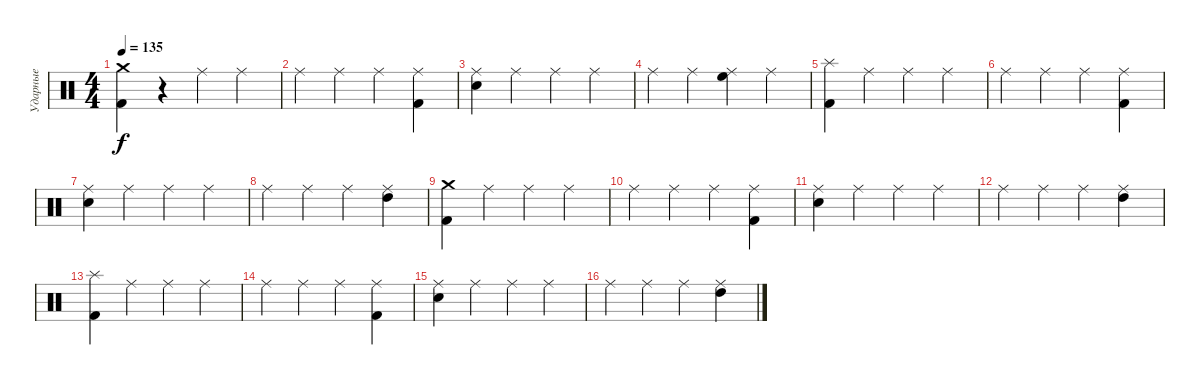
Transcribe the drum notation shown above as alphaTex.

\track ("Ударные" "Ударные") {instrument percussion}
\staff {score}
\articulation defaults
\ts (4 4)
\tempo 135
\clef neutral
\ks c
("Crash medium (hit)" "Kick (hit) 2").4{dy f} r.4 "Ride (middle)".4 "Ride (middle)".4 |
"Ride (middle)".4 "Ride (middle)".4 "Ride (middle)".4 ("Ride (middle)" "Kick (hit) 2").4 |
("Ride (middle)" "Electric Snare (hit)").4 "Ride (middle)".4 "Ride (middle)".4 "Ride (middle)".4 |
"Ride (middle)".4 "Ride (middle)".4 ("Ride (middle)" "High Floor Tom (hit)").4 "Ride (middle)".4 |
("Splash (hit)" "Kick (hit) 2").4 "Ride (middle)".4 "Ride (middle)".4 "Ride (middle)".4 |
"Ride (middle)".4 "Ride (middle)".4 "Ride (middle)".4 ("Ride (middle)" "Kick (hit) 2").4 |
("Ride (middle)" "Electric Snare (hit)").4 "Ride (middle)".4 "Ride (middle)".4 "Ride (middle)".4 |
"Ride (middle)".4 "Ride (middle)".4 "Ride (middle)".4 ("Ride (middle)" "High Tom (hit)").4 |
("Crash medium (hit)" "Kick (hit) 2").4 "Ride (middle)".4 "Ride (middle)".4 "Ride (middle)".4 |
"Ride (middle)".4 "Ride (middle)".4 "Ride (middle)".4 ("Ride (middle)" "Kick (hit) 2").4 |
("Ride (middle)" "Electric Snare (hit)").4 "Ride (middle)".4 "Ride (middle)".4 "Ride (middle)".4 |
"Ride (middle)".4 "Ride (middle)".4 "Ride (middle)".4 ("Ride (middle)" "High Tom (hit)").4 |
("Splash (hit)" "Kick (hit) 2").4 "Ride (middle)".4 "Ride (middle)".4 "Ride (middle)".4 |
"Ride (middle)".4 "Ride (middle)".4 "Ride (middle)".4 ("Ride (middle)" "Kick (hit) 2").4 |
("Ride (middle)" "Electric Snare (hit)").4 "Ride (middle)".4 "Ride (middle)".4 "Ride (middle)".4 |
"Ride (middle)".4 "Ride (middle)".4 "Ride (middle)".4 ("Ride (middle)" "High Tom (hit)").4
